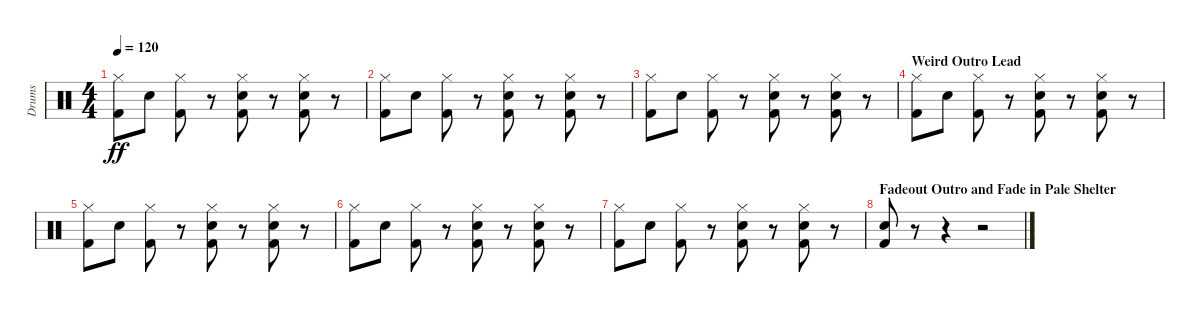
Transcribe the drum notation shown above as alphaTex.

\track ("Drums" "Drums") {instrument percussion}
\staff {score}
\articulation defaults
\ts (4 4)
\tempo 120
\clef neutral
\ks c
("Hi-Hat (closed)" "Kick (hit) 2").8{dy ff} "Snare (hit) 2".8 ("Hi-Hat (closed)" "Kick (hit) 2").8 r.8 ("Hi-Hat (closed)" "Snare (hit) 2" "Kick (hit) 2").8 r.8 ("Hi-Hat (closed)" "Snare (hit) 2" "Kick (hit) 2").8 r.8 |
("Hi-Hat (closed)" "Kick (hit) 2").8 "Snare (hit) 2".8 ("Hi-Hat (closed)" "Kick (hit) 2").8 r.8 ("Hi-Hat (closed)" "Snare (hit) 2" "Kick (hit) 2").8 r.8 ("Hi-Hat (closed)" "Snare (hit) 2" "Kick (hit) 2").8 r.8 |
("Hi-Hat (closed)" "Kick (hit) 2").8 "Snare (hit) 2".8 ("Hi-Hat (closed)" "Kick (hit) 2").8 r.8 ("Hi-Hat (closed)" "Snare (hit) 2" "Kick (hit) 2").8 r.8 ("Hi-Hat (closed)" "Snare (hit) 2" "Kick (hit) 2").8 r.8 |
\section ("" "Weird Outro Lead")
("Hi-Hat (closed)" "Kick (hit) 2").8 "Snare (hit) 2".8 ("Hi-Hat (closed)" "Kick (hit) 2").8 r.8 ("Hi-Hat (closed)" "Snare (hit) 2" "Kick (hit) 2").8 r.8 ("Hi-Hat (closed)" "Snare (hit) 2" "Kick (hit) 2").8 r.8 |
("Hi-Hat (closed)" "Kick (hit) 2").8 "Snare (hit) 2".8 ("Hi-Hat (closed)" "Kick (hit) 2").8 r.8 ("Hi-Hat (closed)" "Snare (hit) 2" "Kick (hit) 2").8 r.8 ("Hi-Hat (closed)" "Snare (hit) 2" "Kick (hit) 2").8 r.8 |
("Hi-Hat (closed)" "Kick (hit) 2").8 "Snare (hit) 2".8 ("Hi-Hat (closed)" "Kick (hit) 2").8 r.8 ("Hi-Hat (closed)" "Snare (hit) 2" "Kick (hit) 2").8 r.8 ("Hi-Hat (closed)" "Snare (hit) 2" "Kick (hit) 2").8 r.8 |
("Hi-Hat (closed)" "Kick (hit) 2").8 "Snare (hit) 2".8 ("Hi-Hat (closed)" "Kick (hit) 2").8 r.8 ("Hi-Hat (closed)" "Snare (hit) 2" "Kick (hit) 2").8 r.8 ("Hi-Hat (closed)" "Snare (hit) 2" "Kick (hit) 2").8 r.8 |
\section ("" "Fadeout Outro and Fade in Pale Shelter")
("Snare (hit) 2" "Kick (hit) 2").8 r.8 r.4 r.2
